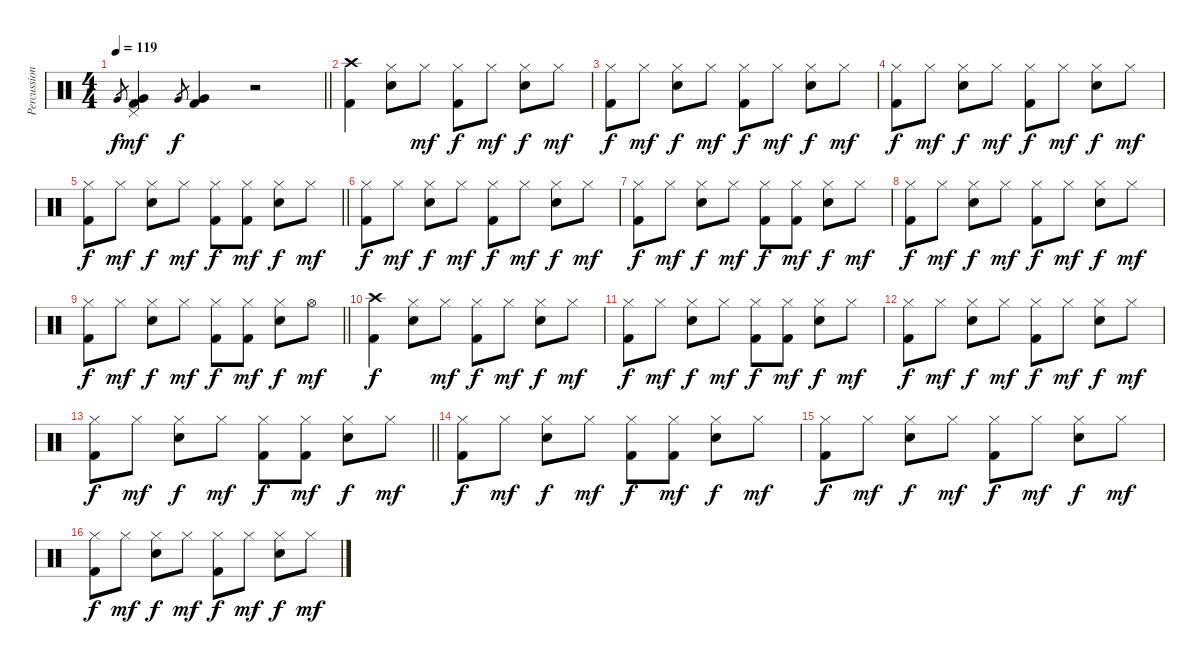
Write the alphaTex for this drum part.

\track ("Percussion" "Percussion") {instrument percussion}
\staff {score}
\articulation defaults
\ts (4 4)
\tempo 119
\clef neutral
\barLineRight lightlight
\ks c "Very Low Tom (hit)".8{gr dy f}
("Pedal Hi-Hat (hit)" "Very Low Tom (hit)" "Kick (hit) 2").4{dy mf} "Very Low Tom (hit)".8{gr dy f} ("Very Low Tom (hit)" "Kick (hit) 2").4 r.2 |
("Crash high (hit)" "Kick (hit) 2").4 ("Hi-Hat (closed)" "Snare (hit) 2").8 "Hi-Hat (closed)".8{dy mf} ("Hi-Hat (closed)" "Kick (hit) 2").8{dy f} "Hi-Hat (closed)".8{dy mf} ("Hi-Hat (closed)" "Snare (hit) 2").8{dy f} "Hi-Hat (closed)".8{dy mf} |
("Hi-Hat (closed)" "Kick (hit) 2").8{dy f} "Hi-Hat (closed)".8{dy mf} ("Hi-Hat (closed)" "Snare (hit) 2").8{dy f} "Hi-Hat (closed)".8{dy mf} ("Hi-Hat (closed)" "Kick (hit) 2").8{dy f} "Hi-Hat (closed)".8{dy mf} ("Hi-Hat (closed)" "Snare (hit) 2").8{dy f} "Hi-Hat (closed)".8{dy mf} |
("Hi-Hat (closed)" "Kick (hit) 2").8{dy f} "Hi-Hat (closed)".8{dy mf} ("Hi-Hat (closed)" "Snare (hit) 2").8{dy f} "Hi-Hat (closed)".8{dy mf} ("Hi-Hat (closed)" "Kick (hit) 2").8{dy f} "Hi-Hat (closed)".8{dy mf} ("Hi-Hat (closed)" "Snare (hit) 2").8{dy f} "Hi-Hat (closed)".8{dy mf} |
\barLineRight lightlight
("Hi-Hat (closed)" "Kick (hit) 2").8{dy f} "Hi-Hat (closed)".8{dy mf} ("Hi-Hat (closed)" "Snare (hit) 2").8{dy f} "Hi-Hat (closed)".8{dy mf} ("Hi-Hat (closed)" "Kick (hit) 2").8{dy f} ("Hi-Hat (closed)" "Kick (hit) 2").8{dy mf} ("Hi-Hat (closed)" "Snare (hit) 2").8{dy f} "Hi-Hat (closed)".8{dy mf} |
("Hi-Hat (closed)" "Kick (hit) 2").8{dy f} "Hi-Hat (closed)".8{dy mf} ("Hi-Hat (closed)" "Snare (hit) 2").8{dy f} "Hi-Hat (closed)".8{dy mf} ("Hi-Hat (closed)" "Kick (hit) 2").8{dy f} "Hi-Hat (closed)".8{dy mf} ("Hi-Hat (closed)" "Snare (hit) 2").8{dy f} "Hi-Hat (closed)".8{dy mf} |
("Hi-Hat (closed)" "Kick (hit) 2").8{dy f} "Hi-Hat (closed)".8{dy mf} ("Hi-Hat (closed)" "Snare (hit) 2").8{dy f} "Hi-Hat (closed)".8{dy mf} ("Hi-Hat (closed)" "Kick (hit) 2").8{dy f} ("Hi-Hat (closed)" "Kick (hit) 2").8{dy mf} ("Hi-Hat (closed)" "Snare (hit) 2").8{dy f} "Hi-Hat (closed)".8{dy mf} |
("Hi-Hat (closed)" "Kick (hit) 2").8{dy f} "Hi-Hat (closed)".8{dy mf} ("Hi-Hat (closed)" "Snare (hit) 2").8{dy f} "Hi-Hat (closed)".8{dy mf} ("Hi-Hat (closed)" "Kick (hit) 2").8{dy f} "Hi-Hat (closed)".8{dy mf} ("Hi-Hat (closed)" "Snare (hit) 2").8{dy f} "Hi-Hat (closed)".8{dy mf} |
\barLineRight lightlight
("Hi-Hat (closed)" "Kick (hit) 2").8{dy f} "Hi-Hat (closed)".8{dy mf} ("Hi-Hat (closed)" "Snare (hit) 2").8{dy f} "Hi-Hat (closed)".8{dy mf} ("Hi-Hat (closed)" "Kick (hit) 2").8{dy f} ("Hi-Hat (closed)" "Kick (hit) 2").8{dy mf} ("Hi-Hat (closed)" "Snare (hit) 2").8{dy f} "Hi-Hat (open)".8{dy mf} |
("Crash high (hit)" "Kick (hit) 2").4{dy f} ("Hi-Hat (closed)" "Snare (hit) 2").8 "Hi-Hat (closed)".8{dy mf} ("Hi-Hat (closed)" "Kick (hit) 2").8{dy f} "Hi-Hat (closed)".8{dy mf} ("Hi-Hat (closed)" "Snare (hit) 2").8{dy f} "Hi-Hat (closed)".8{dy mf} |
("Hi-Hat (closed)" "Kick (hit) 2").8{dy f} "Hi-Hat (closed)".8{dy mf} ("Hi-Hat (closed)" "Snare (hit) 2").8{dy f} "Hi-Hat (closed)".8{dy mf} ("Hi-Hat (closed)" "Kick (hit) 2").8{dy f} ("Hi-Hat (closed)" "Kick (hit) 2").8{dy mf} ("Hi-Hat (closed)" "Snare (hit) 2").8{dy f} "Hi-Hat (closed)".8{dy mf} |
("Hi-Hat (closed)" "Kick (hit) 2").8{dy f} "Hi-Hat (closed)".8{dy mf} ("Hi-Hat (closed)" "Snare (hit) 2").8{dy f} "Hi-Hat (closed)".8{dy mf} ("Hi-Hat (closed)" "Kick (hit) 2").8{dy f} "Hi-Hat (closed)".8{dy mf} ("Hi-Hat (closed)" "Snare (hit) 2").8{dy f} "Hi-Hat (closed)".8{dy mf} |
\barLineRight lightlight
("Hi-Hat (closed)" "Kick (hit) 2").8{dy f} "Hi-Hat (closed)".8{dy mf} ("Hi-Hat (closed)" "Snare (hit) 2").8{dy f} "Hi-Hat (closed)".8{dy mf} ("Hi-Hat (closed)" "Kick (hit) 2").8{dy f} ("Hi-Hat (closed)" "Kick (hit) 2").8{dy mf} ("Hi-Hat (closed)" "Snare (hit) 2").8{dy f} "Hi-Hat (closed)".8{dy mf} |
("Hi-Hat (closed)" "Kick (hit) 2").8{dy f} "Hi-Hat (closed)".8{dy mf} ("Hi-Hat (closed)" "Snare (hit) 2").8{dy f} "Hi-Hat (closed)".8{dy mf} ("Hi-Hat (closed)" "Kick (hit) 2").8{dy f} ("Hi-Hat (closed)" "Kick (hit) 2").8{dy mf} ("Hi-Hat (closed)" "Snare (hit) 2").8{dy f} "Hi-Hat (closed)".8{dy mf} |
("Hi-Hat (closed)" "Kick (hit) 2").8{dy f} "Hi-Hat (closed)".8{dy mf} ("Hi-Hat (closed)" "Snare (hit) 2").8{dy f} "Hi-Hat (closed)".8{dy mf} ("Hi-Hat (closed)" "Kick (hit) 2").8{dy f} "Hi-Hat (closed)".8{dy mf} ("Hi-Hat (closed)" "Snare (hit) 2").8{dy f} "Hi-Hat (closed)".8{dy mf} |
("Hi-Hat (closed)" "Kick (hit) 2").8{dy f} "Hi-Hat (closed)".8{dy mf} ("Hi-Hat (closed)" "Snare (hit) 2").8{dy f} "Hi-Hat (closed)".8{dy mf} ("Hi-Hat (closed)" "Kick (hit) 2").8{dy f} "Hi-Hat (closed)".8{dy mf} ("Hi-Hat (closed)" "Snare (hit) 2").8{dy f} "Hi-Hat (closed)".8{dy mf}
